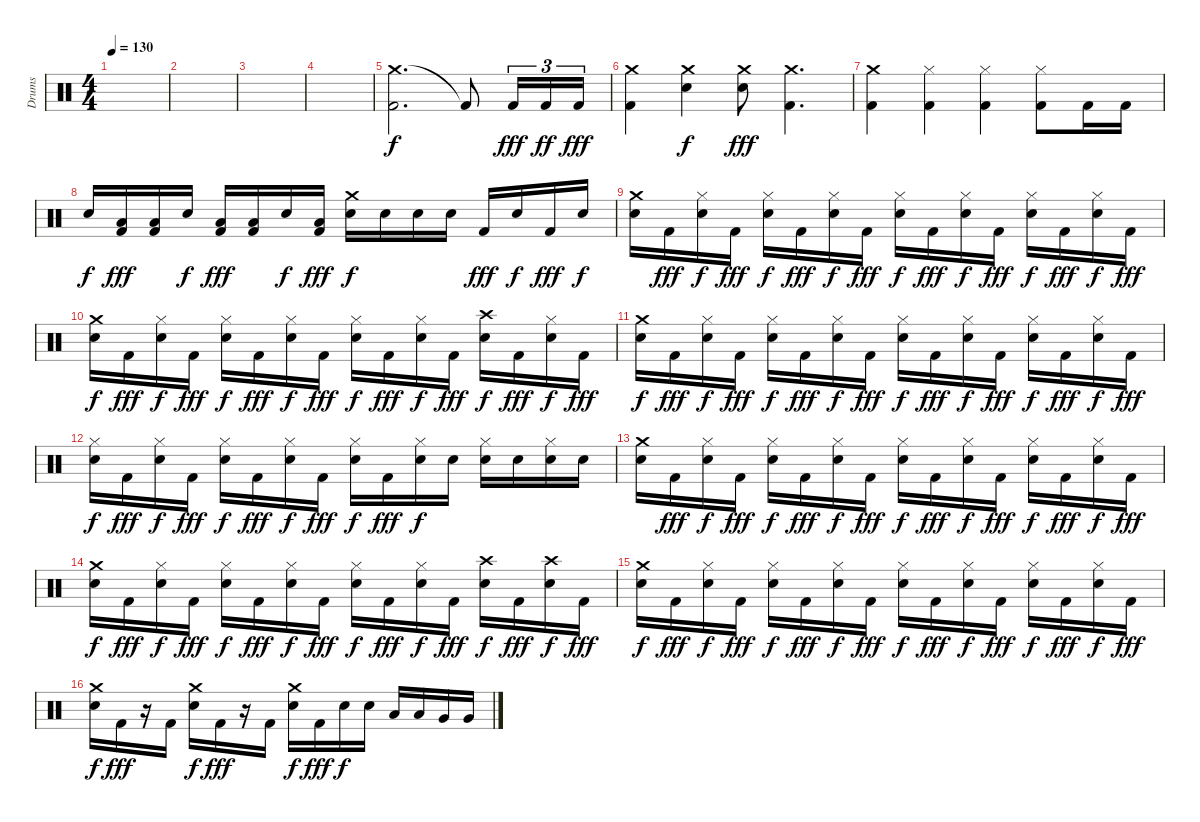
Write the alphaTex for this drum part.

\track ("Drums" "Drums") {instrument percussion}
\staff {score}
\articulation defaults
\ts (4 4)
\tempo 130
\clef neutral
\ks c
|
|
|
|
("Crash medium (hit)" "Kick (hit) 2").2{d} "Kick (hit) 2"{t}.8{dy f} "Kick (hit) 2".16{tu (3 2) dy fff} "Kick (hit) 2".16{tu (3 2) dy ff} "Kick (hit) 2".16{tu (3 2) dy fff} |
("Crash medium (hit)" "Kick (hit) 2").4 ("Crash medium (hit)" "Electric Snare (hit)").4{dy f} ("Crash medium (hit)" "Electric Snare (hit)").8{dy fff} ("Crash medium (hit)" "Kick (hit) 2").4{d} |
("Crash medium (hit)" "Kick (hit) 2").4 ("Hi-Hat (closed)" "Kick (hit) 2").4 ("Hi-Hat (closed)" "Kick (hit) 2").4 ("Hi-Hat (closed)" "Kick (hit) 2").8 "Kick (hit) 2".16 "Kick (hit) 2".16 |
"Electric Snare (hit)".16{dy f} ("Low Tom (hit)" "Kick (hit) 2").16{dy fff} ("Low Tom (hit)" "Kick (hit) 2").16 "Electric Snare (hit)".16{dy f} ("Low Tom (hit)" "Kick (hit) 2").16{dy fff} ("Low Tom (hit)" "Kick (hit) 2").16 "Electric Snare (hit)".16{dy f} ("Low Tom (hit)" "Kick (hit) 2").16{dy fff} ("Crash medium (hit)" "Electric Snare (hit)").16{dy f} "Electric Snare (hit)".16 "Electric Snare (hit)".16 "Electric Snare (hit)".16 "Kick (hit) 2".16{dy fff} "Electric Snare (hit)".16{dy f} "Kick (hit) 2".16{dy fff} "Electric Snare (hit)".16{dy f} |
("Crash medium (hit)" "Electric Snare (hit)").16 "Kick (hit) 2".16{dy fff} ("Hi-Hat (closed)" "Electric Snare (hit)").16{dy f} "Kick (hit) 2".16{dy fff} ("Hi-Hat (closed)" "Electric Snare (hit)").16{dy f} "Kick (hit) 2".16{dy fff} ("Hi-Hat (closed)" "Electric Snare (hit)").16{dy f} "Kick (hit) 2".16{dy fff} ("Hi-Hat (closed)" "Electric Snare (hit)").16{dy f} "Kick (hit) 2".16{dy fff} ("Hi-Hat (closed)" "Electric Snare (hit)").16{dy f} "Kick (hit) 2".16{dy fff} ("Hi-Hat (closed)" "Electric Snare (hit)").16{dy f} "Kick (hit) 2".16{dy fff} ("Hi-Hat (closed)" "Electric Snare (hit)").16{dy f} "Kick (hit) 2".16{dy fff} |
("Crash medium (hit)" "Electric Snare (hit)").16{dy f} "Kick (hit) 2".16{dy fff} ("Hi-Hat (closed)" "Electric Snare (hit)").16{dy f} "Kick (hit) 2".16{dy fff} ("Hi-Hat (closed)" "Electric Snare (hit)").16{dy f} "Kick (hit) 2".16{dy fff} ("Hi-Hat (closed)" "Electric Snare (hit)").16{dy f} "Kick (hit) 2".16{dy fff} ("Hi-Hat (closed)" "Electric Snare (hit)").16{dy f} "Kick (hit) 2".16{dy fff} ("Hi-Hat (closed)" "Electric Snare (hit)").16{dy f} "Kick (hit) 2".16{dy fff} ("Crash high (hit)" "Electric Snare (hit)").16{dy f} "Kick (hit) 2".16{dy fff} ("Hi-Hat (closed)" "Electric Snare (hit)").16{dy f} "Kick (hit) 2".16{dy fff} |
("Crash medium (hit)" "Electric Snare (hit)").16{dy f} "Kick (hit) 2".16{dy fff} ("Hi-Hat (closed)" "Electric Snare (hit)").16{dy f} "Kick (hit) 2".16{dy fff} ("Hi-Hat (closed)" "Electric Snare (hit)").16{dy f} "Kick (hit) 2".16{dy fff} ("Hi-Hat (closed)" "Electric Snare (hit)").16{dy f} "Kick (hit) 2".16{dy fff} ("Hi-Hat (closed)" "Electric Snare (hit)").16{dy f} "Kick (hit) 2".16{dy fff} ("Hi-Hat (closed)" "Electric Snare (hit)").16{dy f} "Kick (hit) 2".16{dy fff} ("Hi-Hat (closed)" "Electric Snare (hit)").16{dy f} "Kick (hit) 2".16{dy fff} ("Hi-Hat (closed)" "Electric Snare (hit)").16{dy f} "Kick (hit) 2".16{dy fff} |
("Hi-Hat (closed)" "Electric Snare (hit)").16{dy f} "Kick (hit) 2".16{dy fff} ("Hi-Hat (closed)" "Electric Snare (hit)").16{dy f} "Kick (hit) 2".16{dy fff} ("Hi-Hat (closed)" "Electric Snare (hit)").16{dy f} "Kick (hit) 2".16{dy fff} ("Hi-Hat (closed)" "Electric Snare (hit)").16{dy f} "Kick (hit) 2".16{dy fff} ("Hi-Hat (closed)" "Electric Snare (hit)").16{dy f} "Kick (hit) 2".16{dy fff} ("Hi-Hat (closed)" "Electric Snare (hit)").16{dy f} "Electric Snare (hit)".16 ("Hi-Hat (closed)" "Electric Snare (hit)").16 "Electric Snare (hit)".16 ("Hi-Hat (closed)" "Electric Snare (hit)").16 "Electric Snare (hit)".16 |
("Crash medium (hit)" "Electric Snare (hit)").16 "Kick (hit) 2".16{dy fff} ("Hi-Hat (closed)" "Electric Snare (hit)").16{dy f} "Kick (hit) 2".16{dy fff} ("Hi-Hat (closed)" "Electric Snare (hit)").16{dy f} "Kick (hit) 2".16{dy fff} ("Hi-Hat (closed)" "Electric Snare (hit)").16{dy f} "Kick (hit) 2".16{dy fff} ("Hi-Hat (closed)" "Electric Snare (hit)").16{dy f} "Kick (hit) 2".16{dy fff} ("Hi-Hat (closed)" "Electric Snare (hit)").16{dy f} "Kick (hit) 2".16{dy fff} ("Hi-Hat (closed)" "Electric Snare (hit)").16{dy f} "Kick (hit) 2".16{dy fff} ("Hi-Hat (closed)" "Electric Snare (hit)").16{dy f} "Kick (hit) 2".16{dy fff} |
("Crash medium (hit)" "Electric Snare (hit)").16{dy f} "Kick (hit) 2".16{dy fff} ("Hi-Hat (closed)" "Electric Snare (hit)").16{dy f} "Kick (hit) 2".16{dy fff} ("Hi-Hat (closed)" "Electric Snare (hit)").16{dy f} "Kick (hit) 2".16{dy fff} ("Hi-Hat (closed)" "Electric Snare (hit)").16{dy f} "Kick (hit) 2".16{dy fff} ("Hi-Hat (closed)" "Electric Snare (hit)").16{dy f} "Kick (hit) 2".16{dy fff} ("Hi-Hat (closed)" "Electric Snare (hit)").16{dy f} "Kick (hit) 2".16{dy fff} ("Crash high (hit)" "Electric Snare (hit)").16{dy f} "Kick (hit) 2".16{dy fff} ("Crash high (hit)" "Electric Snare (hit)").16{dy f} "Kick (hit) 2".16{dy fff} |
("Crash medium (hit)" "Electric Snare (hit)").16{dy f} "Kick (hit) 2".16{dy fff} ("Hi-Hat (closed)" "Electric Snare (hit)").16{dy f} "Kick (hit) 2".16{dy fff} ("Hi-Hat (closed)" "Electric Snare (hit)").16{dy f} "Kick (hit) 2".16{dy fff} ("Hi-Hat (closed)" "Electric Snare (hit)").16{dy f} "Kick (hit) 2".16{dy fff} ("Hi-Hat (closed)" "Electric Snare (hit)").16{dy f} "Kick (hit) 2".16{dy fff} ("Hi-Hat (closed)" "Electric Snare (hit)").16{dy f} "Kick (hit) 2".16{dy fff} ("Hi-Hat (closed)" "Electric Snare (hit)").16{dy f} "Kick (hit) 2".16{dy fff} ("Hi-Hat (closed)" "Electric Snare (hit)").16{dy f} "Kick (hit) 2".16{dy fff} |
("Crash medium (hit)" "Electric Snare (hit)").16{dy f} "Kick (hit) 2".16{dy fff} r.16 "Kick (hit) 2".16 ("Crash medium (hit)" "Electric Snare (hit)").16{dy f} "Kick (hit) 2".16{dy fff} r.16 "Kick (hit) 2".16 ("Crash medium (hit)" "Electric Snare (hit)").16{dy f} "Kick (hit) 2".16{dy fff} "Electric Snare (hit)".16{dy f} "Electric Snare (hit)".16 "Low Tom (hit)".16 "Low Tom (hit)".16 "Very Low Tom (hit)".16 "Very Low Tom (hit)".16
